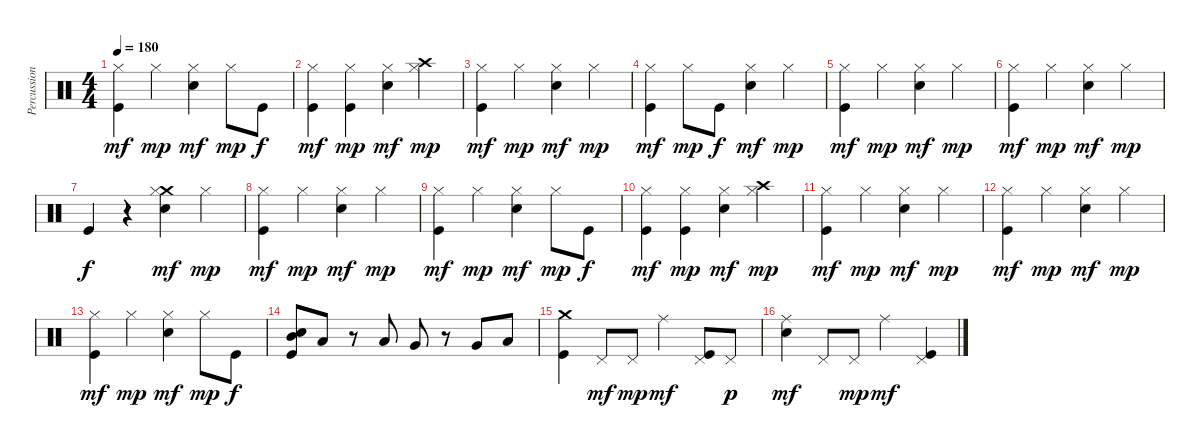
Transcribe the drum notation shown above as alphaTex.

\track ("Percussion" "Percussion") {instrument percussion}
\staff {score}
\articulation defaults
\ts (4 4)
\tempo 180
\clef neutral
\ks c
("Hi-Hat (closed)" "Kick (hit)").4{dy mf} "Hi-Hat (closed)".4{dy mp} ("Hi-Hat (closed)" "Snare (hit) 2").4{dy mf} "Hi-Hat (closed)".8{dy mp} "Kick (hit)".8{dy f} |
("Hi-Hat (closed)" "Kick (hit)").4{dy mf} ("Hi-Hat (closed)" "Kick (hit)").4{dy mp} ("Hi-Hat (closed)" "Snare (hit) 2").4{dy mf} ("Crash high (hit)" "Hi-Hat (closed)").4{dy mp} |
("Hi-Hat (closed)" "Kick (hit)").4{dy mf} "Hi-Hat (closed)".4{dy mp} ("Hi-Hat (closed)" "Snare (hit) 2").4{dy mf} "Hi-Hat (closed)".4{dy mp} |
("Hi-Hat (closed)" "Kick (hit)").4{dy mf} "Hi-Hat (closed)".8{dy mp} "Kick (hit)".8{dy f} ("Hi-Hat (closed)" "Snare (hit) 2").4{dy mf} "Hi-Hat (closed)".4{dy mp} |
("Hi-Hat (closed)" "Kick (hit)").4{dy mf} "Hi-Hat (closed)".4{dy mp} ("Hi-Hat (closed)" "Snare (hit) 2").4{dy mf} "Hi-Hat (closed)".4{dy mp} |
("Hi-Hat (closed)" "Kick (hit)").4{dy mf} "Hi-Hat (closed)".4{dy mp} ("Hi-Hat (closed)" "Snare (hit) 2").4{dy mf} "Hi-Hat (closed)".4{dy mp} |
"Kick (hit)".4{dy f} r.4 ("Crash medium (hit)" "Hi-Hat (closed)" "Snare (hit) 2").4{dy mf} "Hi-Hat (closed)".4{dy mp} |
("Hi-Hat (closed)" "Kick (hit)").4{dy mf} "Hi-Hat (closed)".4{dy mp} ("Hi-Hat (closed)" "Snare (hit) 2").4{dy mf} "Hi-Hat (closed)".4{dy mp} |
("Hi-Hat (closed)" "Kick (hit)").4{dy mf} "Hi-Hat (closed)".4{dy mp} ("Hi-Hat (closed)" "Snare (hit) 2").4{dy mf} "Hi-Hat (closed)".8{dy mp} "Kick (hit)".8{dy f} |
("Hi-Hat (closed)" "Kick (hit)").4{dy mf} ("Hi-Hat (closed)" "Kick (hit)").4{dy mp} ("Hi-Hat (closed)" "Snare (hit) 2").4{dy mf} ("Crash high (hit)" "Hi-Hat (closed)").4{dy mp} |
("Hi-Hat (closed)" "Kick (hit)").4{dy mf} "Hi-Hat (closed)".4{dy mp} ("Hi-Hat (closed)" "Snare (hit) 2").4{dy mf} "Hi-Hat (closed)".4{dy mp} |
("Hi-Hat (closed)" "Kick (hit)").4{dy mf} "Hi-Hat (closed)".4{dy mp} ("Hi-Hat (closed)" "Snare (hit) 2").4{dy mf} "Hi-Hat (closed)".4{dy mp} |
("Hi-Hat (closed)" "Kick (hit)").4{dy mf} "Hi-Hat (closed)".4{dy mp} ("Hi-Hat (closed)" "Snare (hit) 2").4{dy mf} "Hi-Hat (closed)".8{dy mp} "Kick (hit)".8{dy f} |
("Mid Tom (hit)" "Snare (hit) 2" "Kick (hit)").8 "Low Tom (hit)".8 r.8 "Low Tom (hit)".8 "Very Low Tom (hit)".8 r.8 "Very Low Tom (hit)".8 "Low Floor Tom (hit)".8 |
("Crash medium (hit)" "Kick (hit)").4 "Pedal Hi-Hat (hit)".8{dy mf} "Pedal Hi-Hat (hit)".8{dy mp} "Ride (middle)".4{dy mf} ("Pedal Hi-Hat (hit)" "Kick (hit)").8 "Pedal Hi-Hat (hit)".8{dy p} |
("Ride (middle)" "Snare (hit) 2").4{dy mf} "Pedal Hi-Hat (hit)".8 "Pedal Hi-Hat (hit)".8{dy mp} "Ride (middle)".4{dy mf} ("Pedal Hi-Hat (hit)" "Kick (hit)").4
